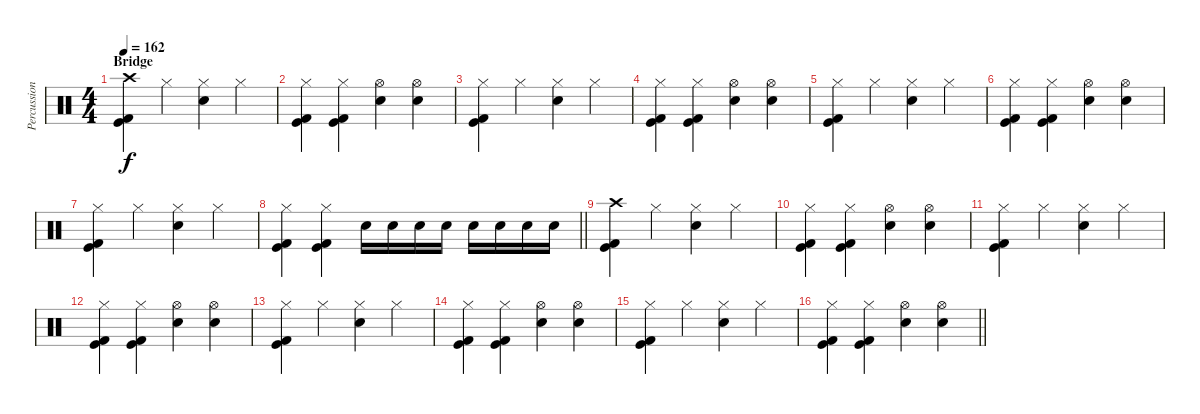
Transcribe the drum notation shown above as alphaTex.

\track ("Percussion" "Percussion") {instrument percussion}
\staff {score}
\articulation defaults
\ts (4 4)
\section ("" "Bridge")
\tempo 162
\clef neutral
\ks c
("Crash high (hit)" "Kick (hit)" "Kick (hit) 2").4{dy f} "Hi-Hat (closed)".4 ("Hi-Hat (closed)" "Electric Snare (hit)").4 "Hi-Hat (closed)".4 |
("Hi-Hat (closed)" "Kick (hit)" "Kick (hit) 2").4 ("Hi-Hat (closed)" "Kick (hit)" "Kick (hit) 2").4 ("Hi-Hat (open)" "Electric Snare (hit)").4 ("Hi-Hat (open)" "Electric Snare (hit)").4 |
("Hi-Hat (closed)" "Kick (hit)" "Kick (hit) 2").4 "Hi-Hat (closed)".4 ("Hi-Hat (closed)" "Electric Snare (hit)").4 "Hi-Hat (closed)".4 |
("Hi-Hat (closed)" "Kick (hit)" "Kick (hit) 2").4 ("Hi-Hat (closed)" "Kick (hit)" "Kick (hit) 2").4 ("Hi-Hat (open)" "Electric Snare (hit)").4 ("Hi-Hat (open)" "Electric Snare (hit)").4 |
("Hi-Hat (closed)" "Kick (hit)" "Kick (hit) 2").4 "Hi-Hat (closed)".4 ("Hi-Hat (closed)" "Electric Snare (hit)").4 "Hi-Hat (closed)".4 |
("Hi-Hat (closed)" "Kick (hit)" "Kick (hit) 2").4 ("Hi-Hat (closed)" "Kick (hit)" "Kick (hit) 2").4 ("Hi-Hat (open)" "Electric Snare (hit)").4 ("Hi-Hat (open)" "Electric Snare (hit)").4 |
("Hi-Hat (closed)" "Kick (hit)" "Kick (hit) 2").4 "Hi-Hat (closed)".4 ("Hi-Hat (closed)" "Electric Snare (hit)").4 "Hi-Hat (closed)".4 |
\barLineRight lightlight
("Hi-Hat (closed)" "Kick (hit)" "Kick (hit) 2").4 ("Hi-Hat (closed)" "Kick (hit)" "Kick (hit) 2").4 "Electric Snare (hit)".16 "Electric Snare (hit)".16 "Electric Snare (hit)".16 "Electric Snare (hit)".16 "Electric Snare (hit)".16 "Electric Snare (hit)".16 "Electric Snare (hit)".16 "Electric Snare (hit)".16 |
\section ("" "")
("Crash high (hit)" "Kick (hit)" "Kick (hit) 2").4 "Hi-Hat (closed)".4 ("Hi-Hat (closed)" "Electric Snare (hit)").4 "Hi-Hat (closed)".4 |
("Hi-Hat (closed)" "Kick (hit)" "Kick (hit) 2").4 ("Hi-Hat (closed)" "Kick (hit)" "Kick (hit) 2").4 ("Hi-Hat (open)" "Electric Snare (hit)").4 ("Hi-Hat (open)" "Electric Snare (hit)").4 |
("Hi-Hat (closed)" "Kick (hit)" "Kick (hit) 2").4 "Hi-Hat (closed)".4 ("Hi-Hat (closed)" "Electric Snare (hit)").4 "Hi-Hat (closed)".4 |
("Hi-Hat (closed)" "Kick (hit)" "Kick (hit) 2").4 ("Hi-Hat (closed)" "Kick (hit)" "Kick (hit) 2").4 ("Hi-Hat (open)" "Electric Snare (hit)").4 ("Hi-Hat (open)" "Electric Snare (hit)").4 |
("Hi-Hat (closed)" "Kick (hit)" "Kick (hit) 2").4 "Hi-Hat (closed)".4 ("Hi-Hat (closed)" "Electric Snare (hit)").4 "Hi-Hat (closed)".4 |
("Hi-Hat (closed)" "Kick (hit)" "Kick (hit) 2").4 ("Hi-Hat (closed)" "Kick (hit)" "Kick (hit) 2").4 ("Hi-Hat (open)" "Electric Snare (hit)").4 ("Hi-Hat (open)" "Electric Snare (hit)").4 |
("Hi-Hat (closed)" "Kick (hit)" "Kick (hit) 2").4 "Hi-Hat (closed)".4 ("Hi-Hat (closed)" "Electric Snare (hit)").4 "Hi-Hat (closed)".4 |
\barLineRight lightlight
("Hi-Hat (closed)" "Kick (hit)" "Kick (hit) 2").4 ("Hi-Hat (closed)" "Kick (hit)" "Kick (hit) 2").4 ("Hi-Hat (open)" "Electric Snare (hit)").4 ("Hi-Hat (open)" "Electric Snare (hit)").4
